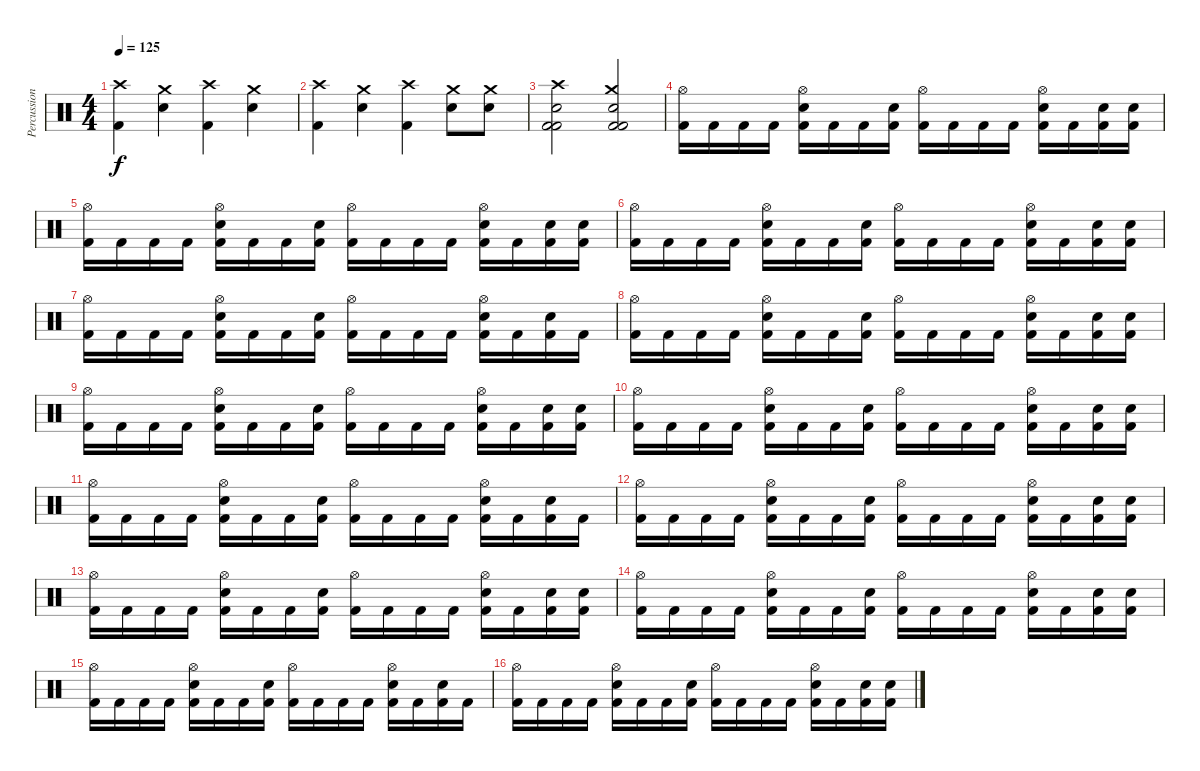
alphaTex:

\track ("Percussion - [Drums]" "Percussion") {instrument percussion}
\staff {score}
\articulation defaults
\ts (4 4)
\tempo 125
\clef neutral
\ks c
("Crash high (hit)" "Kick (hit) 2").4{dy f} ("Crash medium (hit)" "Snare (hit) 2").4 ("Crash high (hit)" "Kick (hit) 2").4 ("Crash medium (hit)" "Snare (hit) 2").4 |
("Crash high (hit)" "Kick (hit) 2").4 ("Crash medium (hit)" "Snare (hit) 2").4 ("Crash high (hit)" "Kick (hit) 2").4 ("Crash medium (hit)" "Snare (hit) 2").8 ("Crash medium (hit)" "Snare (hit) 2").8 |
("Crash high (hit)" "Snare (hit) 2" "Kick (hit) 2" "Kick (hit) 2").2 ("Crash medium (hit)" "Snare (hit) 2" "Kick (hit) 2" "Kick (hit) 2").2 |
("Hi-Hat (open)" "Kick (hit) 2").16 "Kick (hit) 2".16 "Kick (hit) 2".16 "Kick (hit) 2".16 ("Hi-Hat (open)" "Snare (hit) 2" "Kick (hit) 2").16 "Kick (hit) 2".16 "Kick (hit) 2".16 ("Snare (hit) 2" "Kick (hit) 2").16 ("Hi-Hat (open)" "Kick (hit) 2").16 "Kick (hit) 2".16 "Kick (hit) 2".16 "Kick (hit) 2".16 ("Hi-Hat (open)" "Snare (hit) 2" "Kick (hit) 2").16 "Kick (hit) 2".16 ("Snare (hit) 2" "Kick (hit) 2").16 ("Snare (hit) 2" "Kick (hit) 2").16 |
("Hi-Hat (open)" "Kick (hit) 2").16 "Kick (hit) 2".16 "Kick (hit) 2".16 "Kick (hit) 2".16 ("Hi-Hat (open)" "Snare (hit) 2" "Kick (hit) 2").16 "Kick (hit) 2".16 "Kick (hit) 2".16 ("Snare (hit) 2" "Kick (hit) 2").16 ("Hi-Hat (open)" "Kick (hit) 2").16 "Kick (hit) 2".16 "Kick (hit) 2".16 "Kick (hit) 2".16 ("Hi-Hat (open)" "Snare (hit) 2" "Kick (hit) 2").16 "Kick (hit) 2".16 ("Snare (hit) 2" "Kick (hit) 2").16 ("Snare (hit) 2" "Kick (hit) 2").16 |
("Hi-Hat (open)" "Kick (hit) 2").16 "Kick (hit) 2".16 "Kick (hit) 2".16 "Kick (hit) 2".16 ("Hi-Hat (open)" "Snare (hit) 2" "Kick (hit) 2").16 "Kick (hit) 2".16 "Kick (hit) 2".16 ("Snare (hit) 2" "Kick (hit) 2").16 ("Hi-Hat (open)" "Kick (hit) 2").16 "Kick (hit) 2".16 "Kick (hit) 2".16 "Kick (hit) 2".16 ("Hi-Hat (open)" "Snare (hit) 2" "Kick (hit) 2").16 "Kick (hit) 2".16 ("Snare (hit) 2" "Kick (hit) 2").16 ("Snare (hit) 2" "Kick (hit) 2").16 |
("Hi-Hat (open)" "Kick (hit) 2").16 "Kick (hit) 2".16 "Kick (hit) 2".16 "Kick (hit) 2".16 ("Hi-Hat (open)" "Snare (hit) 2" "Kick (hit) 2").16 "Kick (hit) 2".16 "Kick (hit) 2".16 ("Snare (hit) 2" "Kick (hit) 2").16 ("Hi-Hat (open)" "Kick (hit) 2").16 "Kick (hit) 2".16 "Kick (hit) 2".16 "Kick (hit) 2".16 ("Hi-Hat (open)" "Snare (hit) 2" "Kick (hit) 2").16 "Kick (hit) 2".16 ("Snare (hit) 2" "Kick (hit) 2").16 "Kick (hit) 2".16 |
("Hi-Hat (open)" "Kick (hit) 2").16 "Kick (hit) 2".16 "Kick (hit) 2".16 "Kick (hit) 2".16 ("Hi-Hat (open)" "Snare (hit) 2" "Kick (hit) 2").16 "Kick (hit) 2".16 "Kick (hit) 2".16 ("Snare (hit) 2" "Kick (hit) 2").16 ("Hi-Hat (open)" "Kick (hit) 2").16 "Kick (hit) 2".16 "Kick (hit) 2".16 "Kick (hit) 2".16 ("Hi-Hat (open)" "Snare (hit) 2" "Kick (hit) 2").16 "Kick (hit) 2".16 ("Snare (hit) 2" "Kick (hit) 2").16 ("Snare (hit) 2" "Kick (hit) 2").16 |
("Hi-Hat (open)" "Kick (hit) 2").16 "Kick (hit) 2".16 "Kick (hit) 2".16 "Kick (hit) 2".16 ("Hi-Hat (open)" "Snare (hit) 2" "Kick (hit) 2").16 "Kick (hit) 2".16 "Kick (hit) 2".16 ("Snare (hit) 2" "Kick (hit) 2").16 ("Hi-Hat (open)" "Kick (hit) 2").16 "Kick (hit) 2".16 "Kick (hit) 2".16 "Kick (hit) 2".16 ("Hi-Hat (open)" "Snare (hit) 2" "Kick (hit) 2").16 "Kick (hit) 2".16 ("Snare (hit) 2" "Kick (hit) 2").16 ("Snare (hit) 2" "Kick (hit) 2").16 |
("Hi-Hat (open)" "Kick (hit) 2").16 "Kick (hit) 2".16 "Kick (hit) 2".16 "Kick (hit) 2".16 ("Hi-Hat (open)" "Snare (hit) 2" "Kick (hit) 2").16 "Kick (hit) 2".16 "Kick (hit) 2".16 ("Snare (hit) 2" "Kick (hit) 2").16 ("Hi-Hat (open)" "Kick (hit) 2").16 "Kick (hit) 2".16 "Kick (hit) 2".16 "Kick (hit) 2".16 ("Hi-Hat (open)" "Snare (hit) 2" "Kick (hit) 2").16 "Kick (hit) 2".16 ("Snare (hit) 2" "Kick (hit) 2").16 ("Snare (hit) 2" "Kick (hit) 2").16 |
("Hi-Hat (open)" "Kick (hit) 2").16 "Kick (hit) 2".16 "Kick (hit) 2".16 "Kick (hit) 2".16 ("Hi-Hat (open)" "Snare (hit) 2" "Kick (hit) 2").16 "Kick (hit) 2".16 "Kick (hit) 2".16 ("Snare (hit) 2" "Kick (hit) 2").16 ("Hi-Hat (open)" "Kick (hit) 2").16 "Kick (hit) 2".16 "Kick (hit) 2".16 "Kick (hit) 2".16 ("Hi-Hat (open)" "Snare (hit) 2" "Kick (hit) 2").16 "Kick (hit) 2".16 ("Snare (hit) 2" "Kick (hit) 2").16 "Kick (hit) 2".16 |
("Hi-Hat (open)" "Kick (hit) 2").16 "Kick (hit) 2".16 "Kick (hit) 2".16 "Kick (hit) 2".16 ("Hi-Hat (open)" "Snare (hit) 2" "Kick (hit) 2").16 "Kick (hit) 2".16 "Kick (hit) 2".16 ("Snare (hit) 2" "Kick (hit) 2").16 ("Hi-Hat (open)" "Kick (hit) 2").16 "Kick (hit) 2".16 "Kick (hit) 2".16 "Kick (hit) 2".16 ("Hi-Hat (open)" "Snare (hit) 2" "Kick (hit) 2").16 "Kick (hit) 2".16 ("Snare (hit) 2" "Kick (hit) 2").16 ("Snare (hit) 2" "Kick (hit) 2").16 |
("Hi-Hat (open)" "Kick (hit) 2").16 "Kick (hit) 2".16 "Kick (hit) 2".16 "Kick (hit) 2".16 ("Hi-Hat (open)" "Snare (hit) 2" "Kick (hit) 2").16 "Kick (hit) 2".16 "Kick (hit) 2".16 ("Snare (hit) 2" "Kick (hit) 2").16 ("Hi-Hat (open)" "Kick (hit) 2").16 "Kick (hit) 2".16 "Kick (hit) 2".16 "Kick (hit) 2".16 ("Hi-Hat (open)" "Snare (hit) 2" "Kick (hit) 2").16 "Kick (hit) 2".16 ("Snare (hit) 2" "Kick (hit) 2").16 ("Snare (hit) 2" "Kick (hit) 2").16 |
("Hi-Hat (open)" "Kick (hit) 2").16 "Kick (hit) 2".16 "Kick (hit) 2".16 "Kick (hit) 2".16 ("Hi-Hat (open)" "Snare (hit) 2" "Kick (hit) 2").16 "Kick (hit) 2".16 "Kick (hit) 2".16 ("Snare (hit) 2" "Kick (hit) 2").16 ("Hi-Hat (open)" "Kick (hit) 2").16 "Kick (hit) 2".16 "Kick (hit) 2".16 "Kick (hit) 2".16 ("Hi-Hat (open)" "Snare (hit) 2" "Kick (hit) 2").16 "Kick (hit) 2".16 ("Snare (hit) 2" "Kick (hit) 2").16 ("Snare (hit) 2" "Kick (hit) 2").16 |
("Hi-Hat (open)" "Kick (hit) 2").16 "Kick (hit) 2".16 "Kick (hit) 2".16 "Kick (hit) 2".16 ("Hi-Hat (open)" "Snare (hit) 2" "Kick (hit) 2").16 "Kick (hit) 2".16 "Kick (hit) 2".16 ("Snare (hit) 2" "Kick (hit) 2").16 ("Hi-Hat (open)" "Kick (hit) 2").16 "Kick (hit) 2".16 "Kick (hit) 2".16 "Kick (hit) 2".16 ("Hi-Hat (open)" "Snare (hit) 2" "Kick (hit) 2").16 "Kick (hit) 2".16 ("Snare (hit) 2" "Kick (hit) 2").16 "Kick (hit) 2".16 |
("Hi-Hat (open)" "Kick (hit) 2").16 "Kick (hit) 2".16 "Kick (hit) 2".16 "Kick (hit) 2".16 ("Hi-Hat (open)" "Snare (hit) 2" "Kick (hit) 2").16 "Kick (hit) 2".16 "Kick (hit) 2".16 ("Snare (hit) 2" "Kick (hit) 2").16 ("Hi-Hat (open)" "Kick (hit) 2").16 "Kick (hit) 2".16 "Kick (hit) 2".16 "Kick (hit) 2".16 ("Hi-Hat (open)" "Snare (hit) 2" "Kick (hit) 2").16 "Kick (hit) 2".16 ("Snare (hit) 2" "Kick (hit) 2").16 ("Snare (hit) 2" "Kick (hit) 2").16
